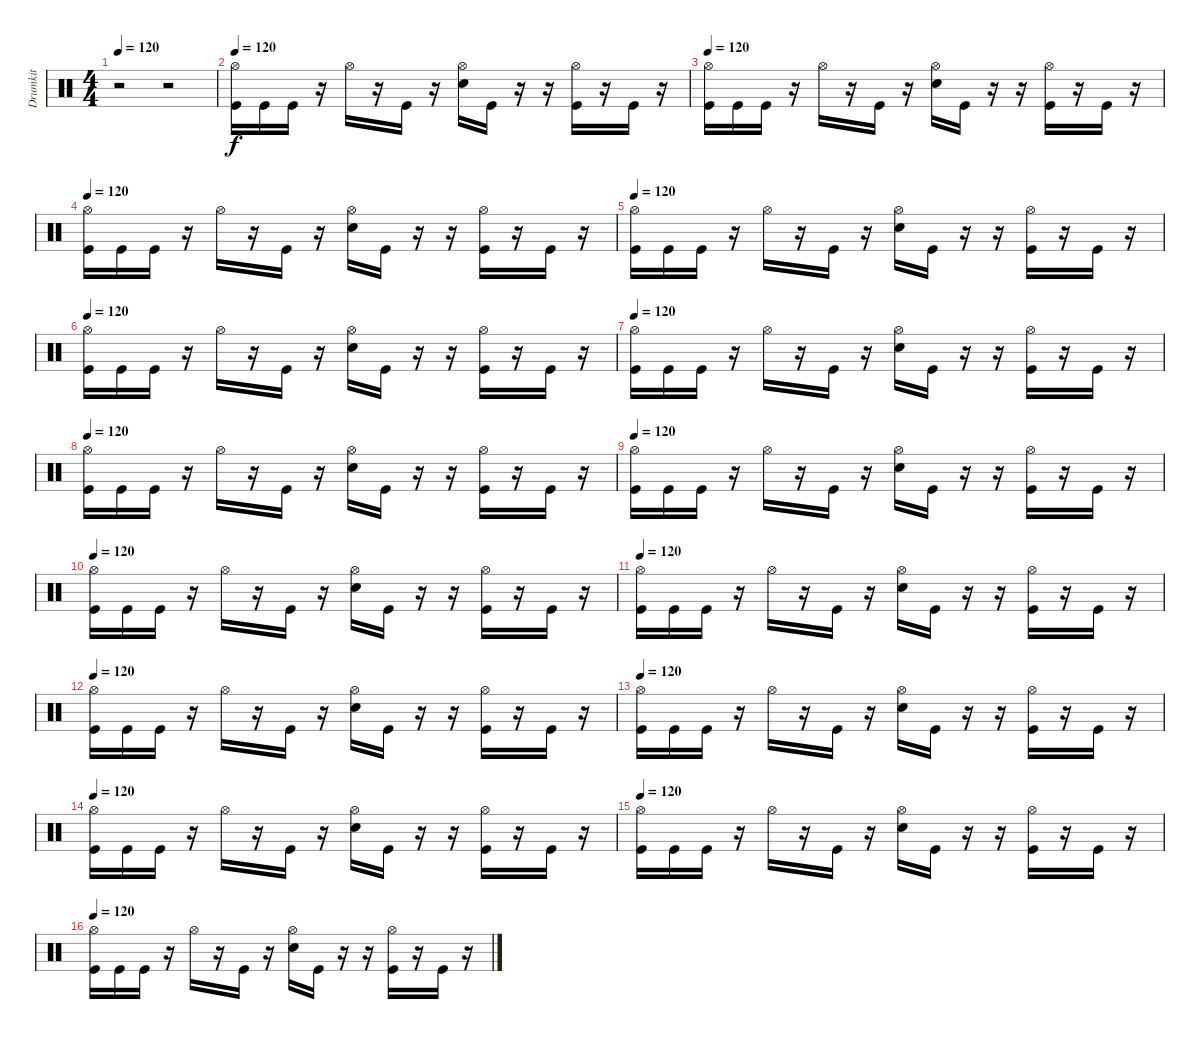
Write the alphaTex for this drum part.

\track ("Drumkit" "Drumkit") {instrument percussion}
\staff {score}
\articulation defaults
\ts (4 4)
\tempo 120
\clef neutral
\ks c
r.2{dy f} r.2 |
\tempo 120
("Hi-Hat (open)" "Kick (hit)").16 "Kick (hit)".16 "Kick (hit)".16 r.16 "Hi-Hat (open)".16 r.16 "Kick (hit)".16 r.16 ("Hi-Hat (open)" "Snare (hit) 2").16 "Kick (hit)".16 r.16 r.16 ("Hi-Hat (open)" "Kick (hit)").16 r.16 "Kick (hit)".16 r.16 |
\tempo 120
("Hi-Hat (open)" "Kick (hit)").16 "Kick (hit)".16 "Kick (hit)".16 r.16 "Hi-Hat (open)".16 r.16 "Kick (hit)".16 r.16 ("Hi-Hat (open)" "Snare (hit) 2").16 "Kick (hit)".16 r.16 r.16 ("Hi-Hat (open)" "Kick (hit)").16 r.16 "Kick (hit)".16 r.16 |
\tempo 120
("Hi-Hat (open)" "Kick (hit)").16 "Kick (hit)".16 "Kick (hit)".16 r.16 "Hi-Hat (open)".16 r.16 "Kick (hit)".16 r.16 ("Hi-Hat (open)" "Snare (hit) 2").16 "Kick (hit)".16 r.16 r.16 ("Hi-Hat (open)" "Kick (hit)").16 r.16 "Kick (hit)".16 r.16 |
\tempo 120
("Hi-Hat (open)" "Kick (hit)").16 "Kick (hit)".16 "Kick (hit)".16 r.16 "Hi-Hat (open)".16 r.16 "Kick (hit)".16 r.16 ("Hi-Hat (open)" "Snare (hit) 2").16 "Kick (hit)".16 r.16 r.16 ("Hi-Hat (open)" "Kick (hit)").16 r.16 "Kick (hit)".16 r.16 |
\tempo 120
("Hi-Hat (open)" "Kick (hit)").16 "Kick (hit)".16 "Kick (hit)".16 r.16 "Hi-Hat (open)".16 r.16 "Kick (hit)".16 r.16 ("Hi-Hat (open)" "Snare (hit) 2").16 "Kick (hit)".16 r.16 r.16 ("Hi-Hat (open)" "Kick (hit)").16 r.16 "Kick (hit)".16 r.16 |
\tempo 120
("Hi-Hat (open)" "Kick (hit)").16 "Kick (hit)".16 "Kick (hit)".16 r.16 "Hi-Hat (open)".16 r.16 "Kick (hit)".16 r.16 ("Hi-Hat (open)" "Snare (hit) 2").16 "Kick (hit)".16 r.16 r.16 ("Hi-Hat (open)" "Kick (hit)").16 r.16 "Kick (hit)".16 r.16 |
\tempo 120
("Hi-Hat (open)" "Kick (hit)").16 "Kick (hit)".16 "Kick (hit)".16 r.16 "Hi-Hat (open)".16 r.16 "Kick (hit)".16 r.16 ("Hi-Hat (open)" "Snare (hit) 2").16 "Kick (hit)".16 r.16 r.16 ("Hi-Hat (open)" "Kick (hit)").16 r.16 "Kick (hit)".16 r.16 |
\tempo 120
("Hi-Hat (open)" "Kick (hit)").16 "Kick (hit)".16 "Kick (hit)".16 r.16 "Hi-Hat (open)".16 r.16 "Kick (hit)".16 r.16 ("Hi-Hat (open)" "Snare (hit) 2").16 "Kick (hit)".16 r.16 r.16 ("Hi-Hat (open)" "Kick (hit)").16 r.16 "Kick (hit)".16 r.16 |
\tempo 120
("Hi-Hat (open)" "Kick (hit)").16 "Kick (hit)".16 "Kick (hit)".16 r.16 "Hi-Hat (open)".16 r.16 "Kick (hit)".16 r.16 ("Hi-Hat (open)" "Snare (hit) 2").16 "Kick (hit)".16 r.16 r.16 ("Hi-Hat (open)" "Kick (hit)").16 r.16 "Kick (hit)".16 r.16 |
\tempo 120
("Hi-Hat (open)" "Kick (hit)").16 "Kick (hit)".16 "Kick (hit)".16 r.16 "Hi-Hat (open)".16 r.16 "Kick (hit)".16 r.16 ("Hi-Hat (open)" "Snare (hit) 2").16 "Kick (hit)".16 r.16 r.16 ("Hi-Hat (open)" "Kick (hit)").16 r.16 "Kick (hit)".16 r.16 |
\tempo 120
("Hi-Hat (open)" "Kick (hit)").16 "Kick (hit)".16 "Kick (hit)".16 r.16 "Hi-Hat (open)".16 r.16 "Kick (hit)".16 r.16 ("Hi-Hat (open)" "Snare (hit) 2").16 "Kick (hit)".16 r.16 r.16 ("Hi-Hat (open)" "Kick (hit)").16 r.16 "Kick (hit)".16 r.16 |
\tempo 120
("Hi-Hat (open)" "Kick (hit)").16 "Kick (hit)".16 "Kick (hit)".16 r.16 "Hi-Hat (open)".16 r.16 "Kick (hit)".16 r.16 ("Hi-Hat (open)" "Snare (hit) 2").16 "Kick (hit)".16 r.16 r.16 ("Hi-Hat (open)" "Kick (hit)").16 r.16 "Kick (hit)".16 r.16 |
\tempo 120
("Hi-Hat (open)" "Kick (hit)").16 "Kick (hit)".16 "Kick (hit)".16 r.16 "Hi-Hat (open)".16 r.16 "Kick (hit)".16 r.16 ("Hi-Hat (open)" "Snare (hit) 2").16 "Kick (hit)".16 r.16 r.16 ("Hi-Hat (open)" "Kick (hit)").16 r.16 "Kick (hit)".16 r.16 |
\tempo 120
("Hi-Hat (open)" "Kick (hit)").16 "Kick (hit)".16 "Kick (hit)".16 r.16 "Hi-Hat (open)".16 r.16 "Kick (hit)".16 r.16 ("Hi-Hat (open)" "Snare (hit) 2").16 "Kick (hit)".16 r.16 r.16 ("Hi-Hat (open)" "Kick (hit)").16 r.16 "Kick (hit)".16 r.16 |
\tempo 120
("Hi-Hat (open)" "Kick (hit)").16 "Kick (hit)".16 "Kick (hit)".16 r.16 "Hi-Hat (open)".16 r.16 "Kick (hit)".16 r.16 ("Hi-Hat (open)" "Snare (hit) 2").16 "Kick (hit)".16 r.16 r.16 ("Hi-Hat (open)" "Kick (hit)").16 r.16 "Kick (hit)".16 r.16
